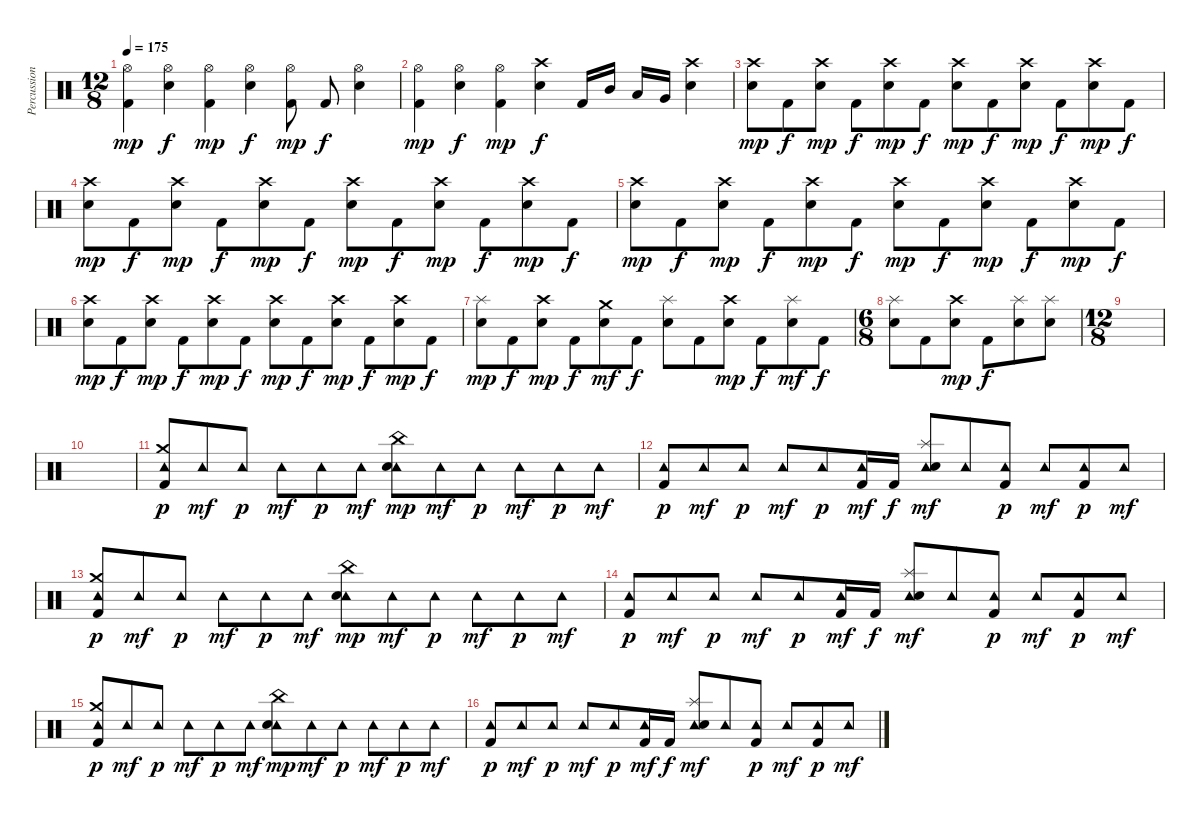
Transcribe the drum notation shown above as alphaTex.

\track ("Percussion" "Percussion") {instrument percussion}
\staff {score}
\articulation defaults
\ts (12 8)
\tempo 175
\clef neutral
\ks c
("Hi-Hat (open)" "Kick (hit) 2").4{dy mp} ("Hi-Hat (open)" "Electric Snare (hit)").4{dy f} ("Hi-Hat (open)" "Kick (hit) 2").4{dy mp} ("Hi-Hat (open)" "Electric Snare (hit)").4{dy f} ("Hi-Hat (open)" "Kick (hit) 2").8{dy mp} "Kick (hit) 2".8{dy f} ("Hi-Hat (open)" "Electric Snare (hit)").4 |
("Hi-Hat (open)" "Kick (hit) 2").4{dy mp} ("Hi-Hat (open)" "Electric Snare (hit)").4{dy f} ("Hi-Hat (open)" "Kick (hit) 2").4{dy mp} ("Crash high (hit)" "Electric Snare (hit)").4{dy f} "Kick (hit) 2".16 "Mid Tom (hit)".16 "Low Tom (hit)".16 "Very Low Tom (hit)".16 ("Crash high (hit)" "Electric Snare (hit)").4 |
("Crash high (hit)" "Electric Snare (hit)").8{dy mp} "Kick (hit) 2".8{dy f} ("Crash high (hit)" "Electric Snare (hit)").8{dy mp} "Kick (hit) 2".8{dy f} ("Crash high (hit)" "Electric Snare (hit)").8{dy mp} "Kick (hit) 2".8{dy f} ("Crash high (hit)" "Electric Snare (hit)").8{dy mp} "Kick (hit) 2".8{dy f} ("Crash high (hit)" "Electric Snare (hit)").8{dy mp} "Kick (hit) 2".8{dy f} ("Crash high (hit)" "Electric Snare (hit)").8{dy mp} "Kick (hit) 2".8{dy f} |
("Crash high (hit)" "Electric Snare (hit)").8{dy mp} "Kick (hit) 2".8{dy f} ("Crash high (hit)" "Electric Snare (hit)").8{dy mp} "Kick (hit) 2".8{dy f} ("Crash high (hit)" "Electric Snare (hit)").8{dy mp} "Kick (hit) 2".8{dy f} ("Crash high (hit)" "Electric Snare (hit)").8{dy mp} "Kick (hit) 2".8{dy f} ("Crash high (hit)" "Electric Snare (hit)").8{dy mp} "Kick (hit) 2".8{dy f} ("Crash high (hit)" "Electric Snare (hit)").8{dy mp} "Kick (hit) 2".8{dy f} |
("Crash high (hit)" "Electric Snare (hit)").8{dy mp} "Kick (hit) 2".8{dy f} ("Crash high (hit)" "Electric Snare (hit)").8{dy mp} "Kick (hit) 2".8{dy f} ("Crash high (hit)" "Electric Snare (hit)").8{dy mp} "Kick (hit) 2".8{dy f} ("Crash high (hit)" "Electric Snare (hit)").8{dy mp} "Kick (hit) 2".8{dy f} ("Crash high (hit)" "Electric Snare (hit)").8{dy mp} "Kick (hit) 2".8{dy f} ("Crash high (hit)" "Electric Snare (hit)").8{dy mp} "Kick (hit) 2".8{dy f} |
("Crash high (hit)" "Electric Snare (hit)").8{dy mp} "Kick (hit) 2".8{dy f} ("Crash high (hit)" "Electric Snare (hit)").8{dy mp} "Kick (hit) 2".8{dy f} ("Crash high (hit)" "Electric Snare (hit)").8{dy mp} "Kick (hit) 2".8{dy f} ("Crash high (hit)" "Electric Snare (hit)").8{dy mp} "Kick (hit) 2".8{dy f} ("Crash high (hit)" "Electric Snare (hit)").8{dy mp} "Kick (hit) 2".8{dy f} ("Crash high (hit)" "Electric Snare (hit)").8{dy mp} "Kick (hit) 2".8{dy f} |
("Splash (hit)" "Electric Snare (hit)").8{dy mp} "Kick (hit) 2".8{dy f} ("Crash high (hit)" "Electric Snare (hit)").8{dy mp} "Kick (hit) 2".8{dy f} ("Crash medium (hit)" "Electric Snare (hit)").8{dy mf} "Kick (hit) 2".8{dy f} ("Splash (hit)" "Electric Snare (hit)").8 "Kick (hit) 2".8 ("Crash high (hit)" "Electric Snare (hit)").8{dy mp} "Kick (hit) 2".8{dy f} ("Splash (hit)" "Electric Snare (hit)").8{dy mf} "Kick (hit) 2".8{dy f} |
\ts (6 8)
("Splash (hit)" "Electric Snare (hit)").8 "Kick (hit) 2".8 ("Crash high (hit)" "Electric Snare (hit)").8{dy mp} "Kick (hit) 2".8{dy f} ("Splash (hit)" "Electric Snare (hit)").8 ("Splash (hit)" "Electric Snare (hit)").8 |
\ts (12 8)
|
|
("Tambourine (hit)" "Crash medium (hit)" "Kick (hit) 2").8{dy p} "Tambourine (hit)".8{dy mf} "Tambourine (hit)".8{dy p} "Tambourine (hit)".8{dy mf} "Tambourine (hit)".8{dy p} "Tambourine (hit)".8{dy mf} ("Tambourine (hit)" "China (hit)" "Electric Snare (hit)").8{dy mp} "Tambourine (hit)".8{dy mf} "Tambourine (hit)".8{dy p} "Tambourine (hit)".8{dy mf} "Tambourine (hit)".8{dy p} "Tambourine (hit)".8{dy mf} |
("Tambourine (hit)" "Kick (hit) 2").8{dy p} "Tambourine (hit)".8{dy mf} "Tambourine (hit)".8{dy p} "Tambourine (hit)".8{dy mf} "Tambourine (hit)".8{dy p} ("Tambourine (hit)" "Kick (hit) 2").16{dy mf} "Kick (hit) 2".16{dy f} ("Tambourine (hit)" "Splash (hit)" "Electric Snare (hit)").8{dy mf} "Tambourine (hit)".8 ("Tambourine (hit)" "Kick (hit) 2").8{dy p} "Tambourine (hit)".8{dy mf} ("Tambourine (hit)" "Kick (hit) 2").8{dy p} "Tambourine (hit)".8{dy mf} |
("Tambourine (hit)" "Crash medium (hit)" "Kick (hit) 2").8{dy p} "Tambourine (hit)".8{dy mf} "Tambourine (hit)".8{dy p} "Tambourine (hit)".8{dy mf} "Tambourine (hit)".8{dy p} "Tambourine (hit)".8{dy mf} ("Tambourine (hit)" "China (hit)" "Electric Snare (hit)").8{dy mp} "Tambourine (hit)".8{dy mf} "Tambourine (hit)".8{dy p} "Tambourine (hit)".8{dy mf} "Tambourine (hit)".8{dy p} "Tambourine (hit)".8{dy mf} |
("Tambourine (hit)" "Kick (hit) 2").8{dy p} "Tambourine (hit)".8{dy mf} "Tambourine (hit)".8{dy p} "Tambourine (hit)".8{dy mf} "Tambourine (hit)".8{dy p} ("Tambourine (hit)" "Kick (hit) 2").16{dy mf} "Kick (hit) 2".16{dy f} ("Tambourine (hit)" "Splash (hit)" "Electric Snare (hit)").8{dy mf} "Tambourine (hit)".8 ("Tambourine (hit)" "Kick (hit) 2").8{dy p} "Tambourine (hit)".8{dy mf} ("Tambourine (hit)" "Kick (hit) 2").8{dy p} "Tambourine (hit)".8{dy mf} |
("Tambourine (hit)" "Crash medium (hit)" "Kick (hit) 2").8{dy p} "Tambourine (hit)".8{dy mf} "Tambourine (hit)".8{dy p} "Tambourine (hit)".8{dy mf} "Tambourine (hit)".8{dy p} "Tambourine (hit)".8{dy mf} ("Tambourine (hit)" "China (hit)" "Electric Snare (hit)").8{dy mp} "Tambourine (hit)".8{dy mf} "Tambourine (hit)".8{dy p} "Tambourine (hit)".8{dy mf} "Tambourine (hit)".8{dy p} "Tambourine (hit)".8{dy mf} |
("Tambourine (hit)" "Kick (hit) 2").8{dy p} "Tambourine (hit)".8{dy mf} "Tambourine (hit)".8{dy p} "Tambourine (hit)".8{dy mf} "Tambourine (hit)".8{dy p} ("Tambourine (hit)" "Kick (hit) 2").16{dy mf} "Kick (hit) 2".16{dy f} ("Tambourine (hit)" "Splash (hit)" "Electric Snare (hit)").8{dy mf} "Tambourine (hit)".8 ("Tambourine (hit)" "Kick (hit) 2").8{dy p} "Tambourine (hit)".8{dy mf} ("Tambourine (hit)" "Kick (hit) 2").8{dy p} "Tambourine (hit)".8{dy mf}
